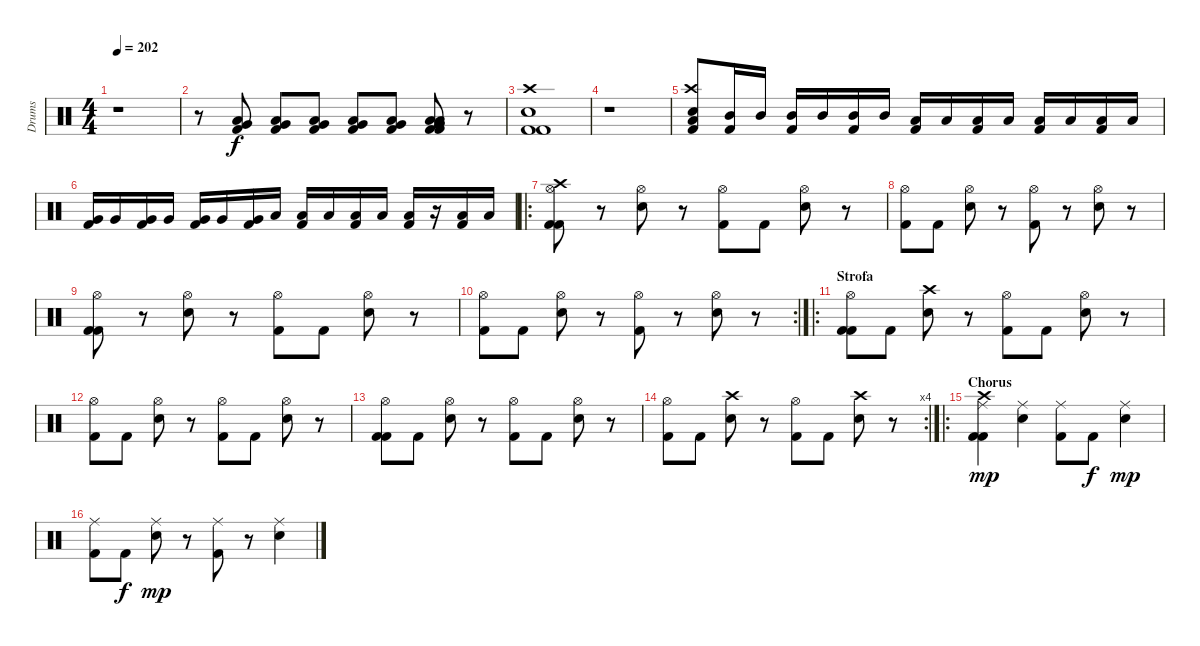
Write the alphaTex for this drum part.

\track ("Drums" "Drums") {instrument percussion}
\staff {score}
\articulation defaults
\ts (4 4)
\tempo 202
\clef neutral
\ks c
r.1{dy f} |
r.8 ("Low Tom (hit)" "Very Low Tom (hit)" "Kick (hit) 2").8 ("Low Tom (hit)" "Very Low Tom (hit)" "Kick (hit) 2").8 ("Low Tom (hit)" "Very Low Tom (hit)" "Kick (hit) 2").8 ("Low Tom (hit)" "Very Low Tom (hit)" "Kick (hit) 2").8 ("Low Tom (hit)" "Very Low Tom (hit)" "Kick (hit) 2").8 ("Low Tom (hit)" "Low Tom (hit)" "Very Low Tom (hit)" "Very Low Tom (hit)" "Kick (hit) 2" "Kick (hit) 2").8 r.8 |
("Crash high (hit)" "Electric Snare (hit)" "Kick (hit) 2" "Kick (hit) 2").1 |
r.1 |
("Crash high (hit)" "Low Tom (hit)" "Electric Snare (hit)" "Kick (hit) 2").8 ("Mid Tom (hit)" "Kick (hit) 2").16 "Mid Tom (hit)".16 ("Mid Tom (hit)" "Kick (hit) 2").16 "Mid Tom (hit)".16 ("Mid Tom (hit)" "Kick (hit) 2").16 "Mid Tom (hit)".16 ("Low Tom (hit)" "Kick (hit) 2").16 "Low Tom (hit)".16 ("Low Tom (hit)" "Kick (hit) 2").16 "Low Tom (hit)".16 ("Low Tom (hit)" "Kick (hit) 2").16 "Low Tom (hit)".16 ("Low Tom (hit)" "Kick (hit) 2").16 "Low Tom (hit)".16 |
("Very Low Tom (hit)" "Kick (hit) 2").16 "Very Low Tom (hit)".16 ("Very Low Tom (hit)" "Kick (hit) 2").16 "Very Low Tom (hit)".16 ("Very Low Tom (hit)" "Kick (hit) 2").16 "Very Low Tom (hit)".16 ("Very Low Tom (hit)" "Kick (hit) 2").16 "Low Floor Tom (hit)".16 ("Low Floor Tom (hit)" "Kick (hit) 2").16 "Low Floor Tom (hit)".16 ("Low Floor Tom (hit)" "Kick (hit) 2").16 "Low Floor Tom (hit)".16 ("Low Floor Tom (hit)" "Kick (hit) 2").16 r.16 ("Low Floor Tom (hit)" "Kick (hit) 2").16 "Low Floor Tom (hit)".16 |
\ro
("Crash high (hit)" "Hi-Hat (open)" "Kick (hit) 2" "Kick (hit) 2").8 r.8 ("Hi-Hat (open)" "Electric Snare (hit)").8 r.8 ("Hi-Hat (open)" "Kick (hit) 2").8 "Kick (hit) 2".8 ("Hi-Hat (open)" "Electric Snare (hit)").8 r.8 |
("Hi-Hat (open)" "Kick (hit) 2").8 "Kick (hit) 2".8 ("Hi-Hat (open)" "Electric Snare (hit)").8 r.8 ("Hi-Hat (open)" "Kick (hit) 2").8 r.8 ("Hi-Hat (open)" "Electric Snare (hit)").8 r.8 |
("Hi-Hat (open)" "Kick (hit) 2" "Kick (hit) 2").8 r.8 ("Hi-Hat (open)" "Electric Snare (hit)").8 r.8 ("Hi-Hat (open)" "Kick (hit) 2").8 "Kick (hit) 2".8 ("Hi-Hat (open)" "Electric Snare (hit)").8 r.8 |
\rc 2
("Hi-Hat (open)" "Kick (hit) 2").8 "Kick (hit) 2".8 ("Hi-Hat (open)" "Electric Snare (hit)").8 r.8 ("Hi-Hat (open)" "Kick (hit) 2").8 r.8 ("Hi-Hat (open)" "Electric Snare (hit)").8 r.8 |
\ro
\section ("" "Strofa")
("Hi-Hat (open)" "Kick (hit) 2" "Kick (hit) 2").8 "Kick (hit) 2".8 ("Crash high (hit)" "Electric Snare (hit)").8 r.8 ("Hi-Hat (open)" "Kick (hit) 2").8 "Kick (hit) 2".8 ("Hi-Hat (open)" "Electric Snare (hit)").8 r.8 |
("Hi-Hat (open)" "Kick (hit) 2").8 "Kick (hit) 2".8 ("Hi-Hat (open)" "Electric Snare (hit)").8 r.8 ("Hi-Hat (open)" "Kick (hit) 2").8 "Kick (hit) 2".8 ("Hi-Hat (open)" "Electric Snare (hit)").8 r.8 |
("Hi-Hat (open)" "Kick (hit) 2" "Kick (hit) 2").8 "Kick (hit) 2".8 ("Hi-Hat (open)" "Electric Snare (hit)").8 r.8 ("Hi-Hat (open)" "Kick (hit) 2").8 "Kick (hit) 2".8 ("Hi-Hat (open)" "Electric Snare (hit)").8 r.8 |
\rc 4
("Hi-Hat (open)" "Kick (hit) 2").8 "Kick (hit) 2".8 ("Crash high (hit)" "Electric Snare (hit)").8 r.8 ("Hi-Hat (open)" "Kick (hit) 2").8 "Kick (hit) 2".8 ("Crash high (hit)" "Electric Snare (hit)").8 r.8 |
\ro
\section ("" "Chorus")
("Crash high (hit)" "Ride (middle)" "Kick (hit) 2" "Kick (hit) 2").4{dy mp} ("Ride (middle)" "Electric Snare (hit)").4 ("Ride (middle)" "Kick (hit) 2").8 "Kick (hit) 2".8{dy f} ("Ride (middle)" "Electric Snare (hit)").4{dy mp} |
("Ride (middle)" "Kick (hit) 2").8 "Kick (hit) 2".8{dy f} ("Ride (middle)" "Electric Snare (hit)").8{dy mp} r.8 ("Ride (middle)" "Kick (hit) 2").8 r.8 ("Ride (middle)" "Electric Snare (hit)").4
